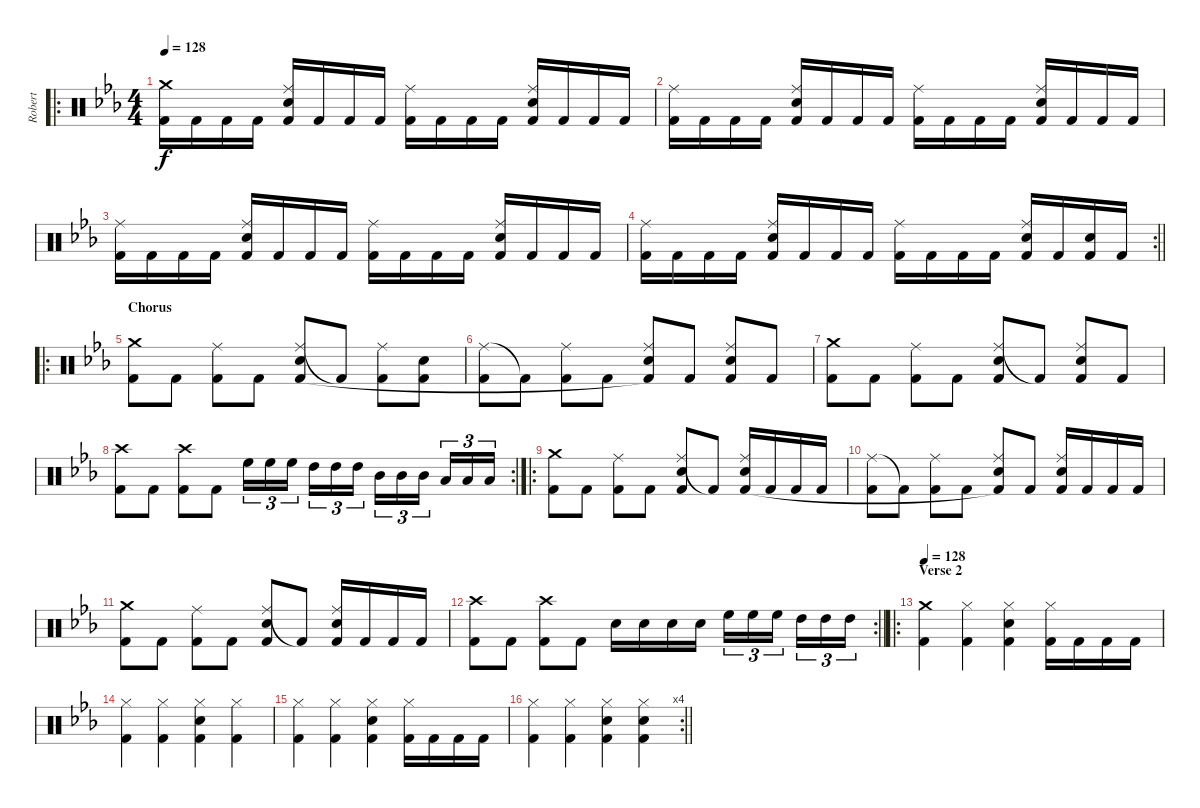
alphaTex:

\track ("Robert" "Robert") {instrument percussion}
\staff {score}
\articulation defaults
\ro
\ts (4 4)
\tempo 128
\clef neutral
\ks cminor
("Crash medium (hit)" "Kick (hit) 2").16{dy f} "Kick (hit) 2".16 "Kick (hit) 2".16 "Kick (hit) 2".16 ("Ride (middle)" "Snare (hit) 2" "Kick (hit) 2").16 "Kick (hit) 2".16 "Kick (hit) 2".16 "Kick (hit) 2".16 ("Ride (middle)" "Kick (hit) 2").16 "Kick (hit) 2".16 "Kick (hit) 2".16 "Kick (hit) 2".16 ("Ride (middle)" "Snare (hit) 2" "Kick (hit) 2").16 "Kick (hit) 2".16 "Kick (hit) 2".16 "Kick (hit) 2".16 |
("Ride (middle)" "Kick (hit) 2").16 "Kick (hit) 2".16 "Kick (hit) 2".16 "Kick (hit) 2".16 ("Ride (middle)" "Snare (hit) 2" "Kick (hit) 2").16 "Kick (hit) 2".16 "Kick (hit) 2".16 "Kick (hit) 2".16 ("Ride (middle)" "Kick (hit) 2").16 "Kick (hit) 2".16 "Kick (hit) 2".16 "Kick (hit) 2".16 ("Ride (middle)" "Snare (hit) 2" "Kick (hit) 2").16 "Kick (hit) 2".16 "Kick (hit) 2".16 "Kick (hit) 2".16 |
("Ride (middle)" "Kick (hit) 2").16 "Kick (hit) 2".16 "Kick (hit) 2".16 "Kick (hit) 2".16 ("Ride (middle)" "Snare (hit) 2" "Kick (hit) 2").16 "Kick (hit) 2".16 "Kick (hit) 2".16 "Kick (hit) 2".16 ("Ride (middle)" "Kick (hit) 2").16 "Kick (hit) 2".16 "Kick (hit) 2".16 "Kick (hit) 2".16 ("Ride (middle)" "Snare (hit) 2" "Kick (hit) 2").16 "Kick (hit) 2".16 "Kick (hit) 2".16 "Kick (hit) 2".16 |
\rc 2
\barLineRight lightlight
("Ride (middle)" "Kick (hit) 2").16 "Kick (hit) 2".16 "Kick (hit) 2".16 "Kick (hit) 2".16 ("Ride (middle)" "Snare (hit) 2" "Kick (hit) 2").16 "Kick (hit) 2".16 "Kick (hit) 2".16 "Kick (hit) 2".16 ("Ride (middle)" "Kick (hit) 2").16 "Kick (hit) 2".16 "Kick (hit) 2".16 "Kick (hit) 2".16 ("Ride (middle)" "Snare (hit) 2" "Kick (hit) 2").16 "Kick (hit) 2".16 ("Snare (hit) 2" "Kick (hit) 2").16 "Kick (hit) 2".16 |
\ro
\section ("" "Chorus")
("Crash medium (hit)" "Kick (hit) 2").8 "Kick (hit) 2".8 ("Ride (middle)" "Kick (hit) 2").8 "Kick (hit) 2".8 ("Ride (middle)" "Snare (hit) 2" "Kick (hit) 2").8 "Kick (hit) 2"{t}.8 ("Ride (middle)" "Kick (hit) 2").8 ("Snare (hit) 2" "Kick (hit) 2").8 |
("Ride (middle)" "Kick (hit) 2").8 "Kick (hit) 2"{t}.8 ("Ride (middle)" "Kick (hit) 2").8 "Kick (hit) 2".8 ("Ride (middle)" "Snare (hit) 2" "Kick (hit) 2"{t}).8 "Kick (hit) 2".8 ("Ride (middle)" "Snare (hit) 2" "Kick (hit) 2").8 "Kick (hit) 2".8 |
("Crash medium (hit)" "Kick (hit) 2").8 "Kick (hit) 2".8 ("Ride (middle)" "Kick (hit) 2").8 "Kick (hit) 2".8 ("Ride (middle)" "Snare (hit) 2" "Kick (hit) 2").8 "Kick (hit) 2"{t}.8 ("Ride (middle)" "Snare (hit) 2" "Kick (hit) 2").8 "Kick (hit) 2".8 |
\rc 2
("Crash high (hit)" "Kick (hit) 2").8 "Kick (hit) 2".8 ("Crash high (hit)" "Kick (hit) 2").8 "Kick (hit) 2".8 "High Floor Tom (hit)".16{tu (3 2)} "High Floor Tom (hit)".16{tu (3 2)} "High Floor Tom (hit)".16{tu (3 2) beam splitsecondary} "High Tom (hit)".16{tu (3 2)} "High Tom (hit)".16{tu (3 2)} "High Tom (hit)".16{tu (3 2)} "Mid Tom (hit)".16{tu (3 2)} "Mid Tom (hit)".16{tu (3 2)} "Mid Tom (hit)".16{tu (3 2) beam splitsecondary} "Low Tom (hit)".16{tu (3 2)} "Low Tom (hit)".16{tu (3 2)} "Low Tom (hit)".16{tu (3 2)} |
\ro
("Crash medium (hit)" "Kick (hit) 2").8 "Kick (hit) 2".8 ("Ride (middle)" "Kick (hit) 2").8 "Kick (hit) 2".8 ("Ride (middle)" "Snare (hit) 2" "Kick (hit) 2").8 "Kick (hit) 2"{t}.8 ("Ride (middle)" "Snare (hit) 2" "Kick (hit) 2").16 "Kick (hit) 2".16 "Kick (hit) 2".16 "Kick (hit) 2".16 |
("Ride (middle)" "Kick (hit) 2").8 "Kick (hit) 2"{t}.8 ("Ride (middle)" "Kick (hit) 2").8 "Kick (hit) 2".8 ("Ride (middle)" "Snare (hit) 2" "Kick (hit) 2"{t}).8 "Kick (hit) 2".8 ("Ride (middle)" "Snare (hit) 2" "Kick (hit) 2").16 "Kick (hit) 2".16 "Kick (hit) 2".16 "Kick (hit) 2".16 |
("Crash medium (hit)" "Kick (hit) 2").8 "Kick (hit) 2".8 ("Ride (middle)" "Kick (hit) 2").8 "Kick (hit) 2".8 ("Ride (middle)" "Snare (hit) 2" "Kick (hit) 2").8 "Kick (hit) 2"{t}.8 ("Ride (middle)" "Snare (hit) 2" "Kick (hit) 2").16 "Kick (hit) 2".16 "Kick (hit) 2".16 "Kick (hit) 2".16 |
\rc 2
\barLineRight lightlight
("Crash high (hit)" "Kick (hit) 2").8 "Kick (hit) 2".8 ("Crash high (hit)" "Kick (hit) 2").8 "Kick (hit) 2".8 "Snare (hit) 2".16 "Snare (hit) 2".16 "Snare (hit) 2".16 "Snare (hit) 2".16 "High Floor Tom (hit)".16{tu (3 2)} "High Floor Tom (hit)".16{tu (3 2)} "High Floor Tom (hit)".16{tu (3 2) beam splitsecondary} "High Tom (hit)".16{tu (3 2)} "High Tom (hit)".16{tu (3 2)} "High Tom (hit)".16{tu (3 2)} |
\ro
\section ("" "Verse 2")
\tempo 128
("Crash medium (hit)" "Kick (hit) 2").4 ("Hi-Hat (closed)" "Kick (hit) 2").4 ("Hi-Hat (closed)" "Snare (hit) 2" "Kick (hit) 2").4 ("Hi-Hat (closed)" "Kick (hit) 2").16 "Kick (hit) 2".16 "Kick (hit) 2".16 "Kick (hit) 2".16 |
("Hi-Hat (closed)" "Kick (hit) 2").4 ("Hi-Hat (closed)" "Kick (hit) 2").4 ("Hi-Hat (closed)" "Snare (hit) 2" "Kick (hit) 2").4 ("Hi-Hat (closed)" "Kick (hit) 2").4 |
("Hi-Hat (closed)" "Kick (hit) 2").4 ("Hi-Hat (closed)" "Kick (hit) 2").4 ("Hi-Hat (closed)" "Snare (hit) 2" "Kick (hit) 2").4 ("Hi-Hat (closed)" "Kick (hit) 2").16 "Kick (hit) 2".16 "Kick (hit) 2".16 "Kick (hit) 2".16 |
\rc 4
\barLineRight lightlight
("Hi-Hat (closed)" "Kick (hit) 2").4 ("Hi-Hat (closed)" "Kick (hit) 2").4 ("Hi-Hat (closed)" "Snare (hit) 2" "Kick (hit) 2").4 ("Hi-Hat (closed)" "Snare (hit) 2" "Kick (hit) 2").4
